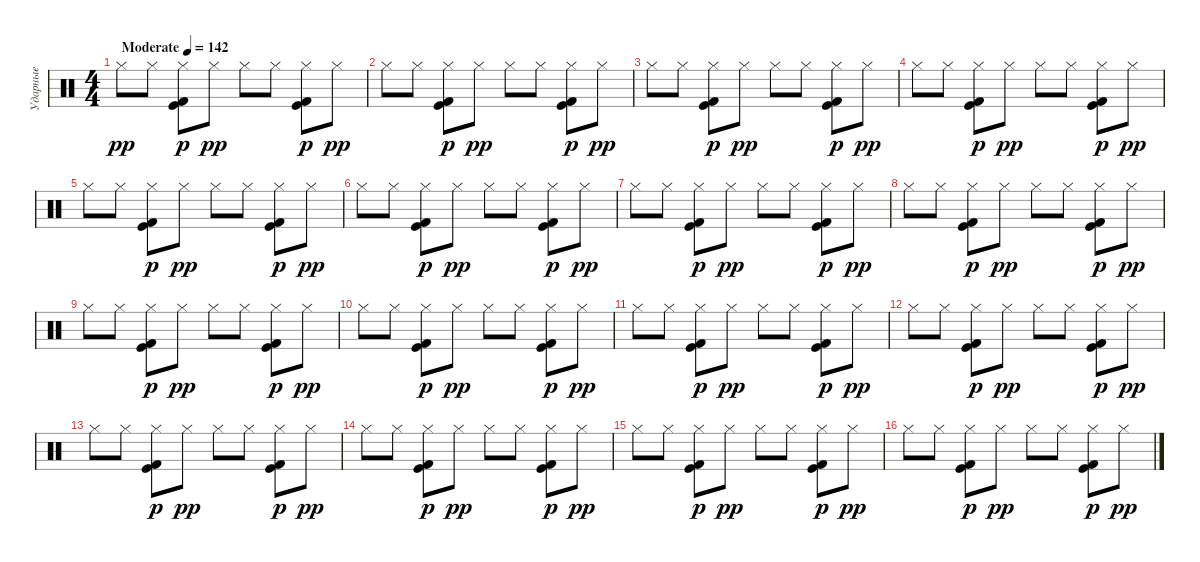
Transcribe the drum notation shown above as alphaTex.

\track ("Ударные" "Ударные") {instrument percussion}
\staff {score}
\articulation defaults
\ts (4 4)
\tempo (142 "Moderate")
\clef neutral
\ks c "Hi-Hat (closed)".8{dy pp} "Hi-Hat (closed)".8
("Kick (hit)" "Hi-Hat (closed)" "Kick (hit) 2").8{dy p} "Hi-Hat (closed)".8{dy pp} "Hi-Hat (closed)".8 "Hi-Hat (closed)".8 ("Kick (hit)" "Hi-Hat (closed)" "Kick (hit) 2").8{dy p} "Hi-Hat (closed)".8{dy pp} |
"Hi-Hat (closed)".8 "Hi-Hat (closed)".8 ("Kick (hit)" "Hi-Hat (closed)" "Kick (hit) 2").8{dy p} "Hi-Hat (closed)".8{dy pp} "Hi-Hat (closed)".8 "Hi-Hat (closed)".8 ("Kick (hit)" "Hi-Hat (closed)" "Kick (hit) 2").8{dy p} "Hi-Hat (closed)".8{dy pp} |
"Hi-Hat (closed)".8 "Hi-Hat (closed)".8 ("Kick (hit)" "Hi-Hat (closed)" "Kick (hit) 2").8{dy p} "Hi-Hat (closed)".8{dy pp} "Hi-Hat (closed)".8 "Hi-Hat (closed)".8 ("Kick (hit)" "Hi-Hat (closed)" "Kick (hit) 2").8{dy p} "Hi-Hat (closed)".8{dy pp} |
"Hi-Hat (closed)".8 "Hi-Hat (closed)".8 ("Kick (hit)" "Hi-Hat (closed)" "Kick (hit) 2").8{dy p} "Hi-Hat (closed)".8{dy pp} "Hi-Hat (closed)".8 "Hi-Hat (closed)".8 ("Kick (hit)" "Hi-Hat (closed)" "Kick (hit) 2").8{dy p} "Hi-Hat (closed)".8{dy pp} |
"Hi-Hat (closed)".8 "Hi-Hat (closed)".8 ("Kick (hit)" "Hi-Hat (closed)" "Kick (hit) 2").8{dy p} "Hi-Hat (closed)".8{dy pp} "Hi-Hat (closed)".8 "Hi-Hat (closed)".8 ("Kick (hit)" "Hi-Hat (closed)" "Kick (hit) 2").8{dy p} "Hi-Hat (closed)".8{dy pp} |
"Hi-Hat (closed)".8 "Hi-Hat (closed)".8 ("Kick (hit)" "Hi-Hat (closed)" "Kick (hit) 2").8{dy p} "Hi-Hat (closed)".8{dy pp} "Hi-Hat (closed)".8 "Hi-Hat (closed)".8 ("Kick (hit)" "Hi-Hat (closed)" "Kick (hit) 2").8{dy p} "Hi-Hat (closed)".8{dy pp} |
"Hi-Hat (closed)".8 "Hi-Hat (closed)".8 ("Kick (hit)" "Hi-Hat (closed)" "Kick (hit) 2").8{dy p} "Hi-Hat (closed)".8{dy pp} "Hi-Hat (closed)".8 "Hi-Hat (closed)".8 ("Kick (hit)" "Hi-Hat (closed)" "Kick (hit) 2").8{dy p} "Hi-Hat (closed)".8{dy pp} |
"Hi-Hat (closed)".8 "Hi-Hat (closed)".8 ("Kick (hit)" "Hi-Hat (closed)" "Kick (hit) 2").8{dy p} "Hi-Hat (closed)".8{dy pp} "Hi-Hat (closed)".8 "Hi-Hat (closed)".8 ("Kick (hit)" "Hi-Hat (closed)" "Kick (hit) 2").8{dy p} "Hi-Hat (closed)".8{dy pp} |
"Hi-Hat (closed)".8 "Hi-Hat (closed)".8 ("Kick (hit)" "Hi-Hat (closed)" "Kick (hit) 2").8{dy p} "Hi-Hat (closed)".8{dy pp} "Hi-Hat (closed)".8 "Hi-Hat (closed)".8 ("Kick (hit)" "Hi-Hat (closed)" "Kick (hit) 2").8{dy p} "Hi-Hat (closed)".8{dy pp} |
"Hi-Hat (closed)".8 "Hi-Hat (closed)".8 ("Kick (hit)" "Hi-Hat (closed)" "Kick (hit) 2").8{dy p} "Hi-Hat (closed)".8{dy pp} "Hi-Hat (closed)".8 "Hi-Hat (closed)".8 ("Kick (hit)" "Hi-Hat (closed)" "Kick (hit) 2").8{dy p} "Hi-Hat (closed)".8{dy pp} |
"Hi-Hat (closed)".8 "Hi-Hat (closed)".8 ("Kick (hit)" "Hi-Hat (closed)" "Kick (hit) 2").8{dy p} "Hi-Hat (closed)".8{dy pp} "Hi-Hat (closed)".8 "Hi-Hat (closed)".8 ("Kick (hit)" "Hi-Hat (closed)" "Kick (hit) 2").8{dy p} "Hi-Hat (closed)".8{dy pp} |
"Hi-Hat (closed)".8 "Hi-Hat (closed)".8 ("Kick (hit)" "Hi-Hat (closed)" "Kick (hit) 2").8{dy p} "Hi-Hat (closed)".8{dy pp} "Hi-Hat (closed)".8 "Hi-Hat (closed)".8 ("Kick (hit)" "Hi-Hat (closed)" "Kick (hit) 2").8{dy p} "Hi-Hat (closed)".8{dy pp} |
"Hi-Hat (closed)".8 "Hi-Hat (closed)".8 ("Kick (hit)" "Hi-Hat (closed)" "Kick (hit) 2").8{dy p} "Hi-Hat (closed)".8{dy pp} "Hi-Hat (closed)".8 "Hi-Hat (closed)".8 ("Kick (hit)" "Hi-Hat (closed)" "Kick (hit) 2").8{dy p} "Hi-Hat (closed)".8{dy pp} |
"Hi-Hat (closed)".8 "Hi-Hat (closed)".8 ("Kick (hit)" "Hi-Hat (closed)" "Kick (hit) 2").8{dy p} "Hi-Hat (closed)".8{dy pp} "Hi-Hat (closed)".8 "Hi-Hat (closed)".8 ("Kick (hit)" "Hi-Hat (closed)" "Kick (hit) 2").8{dy p} "Hi-Hat (closed)".8{dy pp} |
"Hi-Hat (closed)".8 "Hi-Hat (closed)".8 ("Kick (hit)" "Hi-Hat (closed)" "Kick (hit) 2").8{dy p} "Hi-Hat (closed)".8{dy pp} "Hi-Hat (closed)".8 "Hi-Hat (closed)".8 ("Kick (hit)" "Hi-Hat (closed)" "Kick (hit) 2").8{dy p} "Hi-Hat (closed)".8{dy pp} |
"Hi-Hat (closed)".8 "Hi-Hat (closed)".8 ("Kick (hit)" "Hi-Hat (closed)" "Kick (hit) 2").8{dy p} "Hi-Hat (closed)".8{dy pp} "Hi-Hat (closed)".8 "Hi-Hat (closed)".8 ("Kick (hit)" "Hi-Hat (closed)" "Kick (hit) 2").8{dy p} "Hi-Hat (closed)".8{dy pp}
